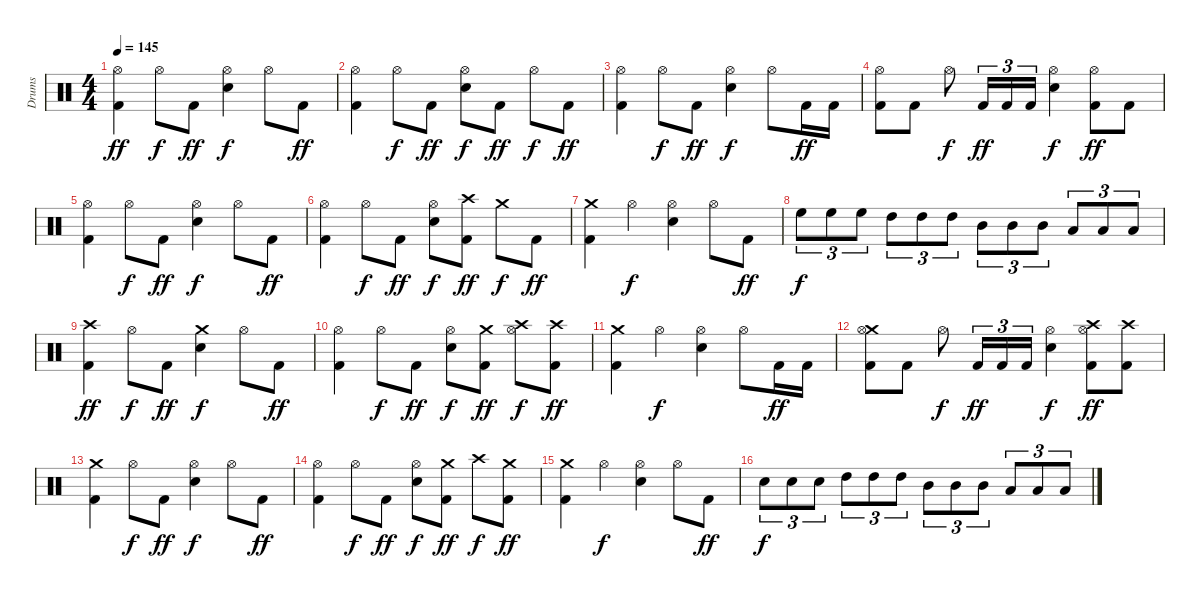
\track ("Drums" "Drums") {instrument percussion}
\staff {score}
\articulation defaults
\ts (4 4)
\tempo 145
\clef neutral
\ks c
("Kick (hit) 2" "Hi-Hat (open)").4{dy ff} "Hi-Hat (open)".8{dy f} "Kick (hit) 2".8{dy ff} ("Snare (hit) 2" "Hi-Hat (open)").4{dy f} "Hi-Hat (open)".8 "Kick (hit) 2".8{dy ff} |
("Kick (hit) 2" "Hi-Hat (open)").4 "Hi-Hat (open)".8{dy f} "Kick (hit) 2".8{dy ff} ("Snare (hit) 2" "Hi-Hat (open)").8{dy f} "Kick (hit) 2".8{dy ff} "Hi-Hat (open)".8{dy f} "Kick (hit) 2".8{dy ff} |
("Kick (hit) 2" "Hi-Hat (open)").4 "Hi-Hat (open)".8{dy f} "Kick (hit) 2".8{dy ff} ("Snare (hit) 2" "Hi-Hat (open)").4{dy f} "Hi-Hat (open)".8 "Kick (hit) 2".16{dy ff} "Kick (hit) 2".16 |
("Kick (hit) 2" "Hi-Hat (open)").8 "Kick (hit) 2".8 "Hi-Hat (open)".8{dy f} "Kick (hit) 2".16{tu (3 2) dy ff} "Kick (hit) 2".16{tu (3 2)} "Kick (hit) 2".16{tu (3 2)} ("Snare (hit) 2" "Hi-Hat (open)").4{dy f} ("Kick (hit) 2" "Hi-Hat (open)").8{dy ff} "Kick (hit) 2".8 |
("Kick (hit) 2" "Hi-Hat (open)").4 "Hi-Hat (open)".8{dy f} "Kick (hit) 2".8{dy ff} ("Snare (hit) 2" "Hi-Hat (open)").4{dy f} "Hi-Hat (open)".8 "Kick (hit) 2".8{dy ff} |
("Kick (hit) 2" "Hi-Hat (open)").4 "Hi-Hat (open)".8{dy f} "Kick (hit) 2".8{dy ff} ("Snare (hit) 2" "Hi-Hat (open)").8{dy f} ("Crash high (hit)" "Kick (hit) 2").8{dy ff} "Crash medium (hit)".8{dy f} "Kick (hit) 2".8{dy ff} |
("Crash medium (hit)" "Kick (hit) 2").4 "Hi-Hat (open)".4{dy f} ("Snare (hit) 2" "Hi-Hat (open)").4 "Hi-Hat (open)".8 "Kick (hit) 2".8{dy ff} |
"High Floor Tom (hit)".8{tu (3 2) dy f} "High Floor Tom (hit)".8{tu (3 2)} "High Floor Tom (hit)".8{tu (3 2)} "High Tom (hit)".8{tu (3 2)} "High Tom (hit)".8{tu (3 2)} "High Tom (hit)".8{tu (3 2)} "Mid Tom (hit)".8{tu (3 2)} "Mid Tom (hit)".8{tu (3 2)} "Mid Tom (hit)".8{tu (3 2)} "Low Tom (hit)".8{tu (3 2)} "Low Tom (hit)".8{tu (3 2)} "Low Tom (hit)".8{tu (3 2)} |
("Crash high (hit)" "Kick (hit) 2").4{dy ff} "Hi-Hat (open)".8{dy f} "Kick (hit) 2".8{dy ff} ("Crash medium (hit)" "Snare (hit) 2").4{dy f} "Hi-Hat (open)".8 "Kick (hit) 2".8{dy ff} |
("Kick (hit) 2" "Hi-Hat (open)").4 "Hi-Hat (open)".8{dy f} "Kick (hit) 2".8{dy ff} ("Snare (hit) 2" "Hi-Hat (open)").8{dy f} ("Crash medium (hit)" "Kick (hit) 2").8{dy ff} ("Crash high (hit)" "Hi-Hat (open)").8{dy f} ("Crash high (hit)" "Kick (hit) 2").8{dy ff} |
("Crash medium (hit)" "Kick (hit) 2").4 "Hi-Hat (open)".4{dy f} ("Snare (hit) 2" "Hi-Hat (open)").4 "Hi-Hat (open)".8 "Kick (hit) 2".16{dy ff} "Kick (hit) 2".16 |
("Crash medium (hit)" "Kick (hit) 2" "Hi-Hat (open)").8 "Kick (hit) 2".8 "Hi-Hat (open)".8{dy f} "Kick (hit) 2".16{tu (3 2) dy ff} "Kick (hit) 2".16{tu (3 2)} "Kick (hit) 2".16{tu (3 2)} ("Snare (hit) 2" "Hi-Hat (open)").4{dy f} ("Crash high (hit)" "Kick (hit) 2" "Hi-Hat (open)").8{dy ff} ("Crash high (hit)" "Kick (hit) 2").8 |
("Crash medium (hit)" "Kick (hit) 2").4 "Hi-Hat (open)".8{dy f} "Kick (hit) 2".8{dy ff} ("Snare (hit) 2" "Hi-Hat (open)").4{dy f} "Hi-Hat (open)".8 "Kick (hit) 2".8{dy ff} |
("Kick (hit) 2" "Hi-Hat (open)").4 "Hi-Hat (open)".8{dy f} "Kick (hit) 2".8{dy ff} ("Snare (hit) 2" "Hi-Hat (open)").8{dy f} ("Crash medium (hit)" "Kick (hit) 2").8{dy ff} "Crash high (hit)".8{dy f} ("Crash medium (hit)" "Kick (hit) 2").8{dy ff} |
("Crash medium (hit)" "Kick (hit) 2").4 "Hi-Hat (open)".4{dy f} ("Snare (hit) 2" "Hi-Hat (open)").4 "Hi-Hat (open)".8 "Kick (hit) 2".8{dy ff} |
"Snare (hit) 2".8{tu (3 2) dy f} "Snare (hit) 2".8{tu (3 2)} "Snare (hit) 2".8{tu (3 2)} "High Tom (hit)".8{tu (3 2)} "High Tom (hit)".8{tu (3 2)} "High Tom (hit)".8{tu (3 2)} "Mid Tom (hit)".8{tu (3 2)} "Mid Tom (hit)".8{tu (3 2)} "Mid Tom (hit)".8{tu (3 2)} "Low Tom (hit)".8{tu (3 2)} "Low Tom (hit)".8{tu (3 2)} "Low Tom (hit)".8{tu (3 2)}
